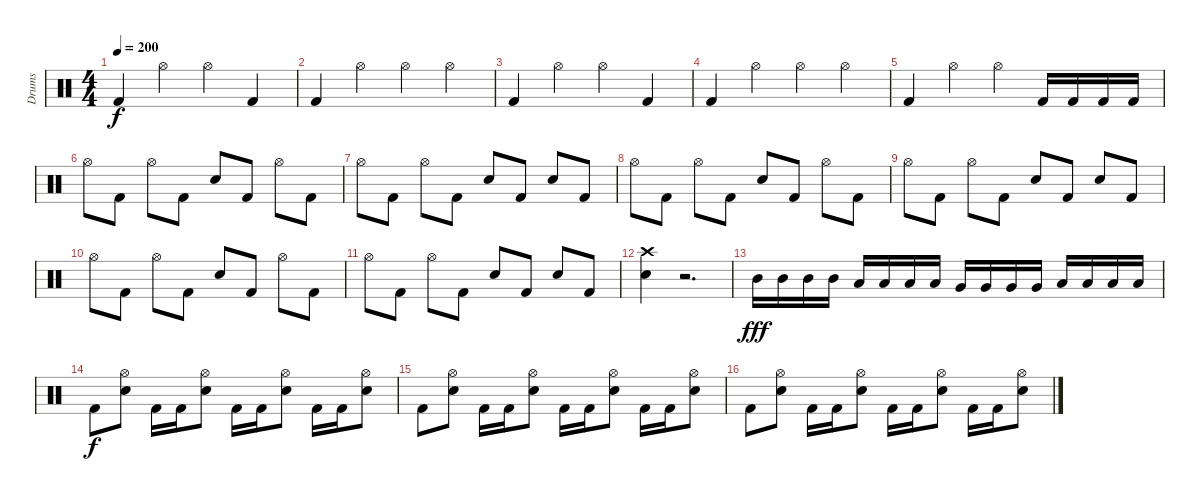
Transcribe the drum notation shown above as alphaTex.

\track ("Drums" "Drums") {instrument percussion}
\staff {score}
\articulation defaults
\ts (4 4)
\tempo 200
\clef neutral
\ks c "Kick (hit) 2".4{dy f} "Hi-Hat (open)".4 "Hi-Hat (open)".4 "Kick (hit) 2".4
|
"Kick (hit) 2".4 "Hi-Hat (open)".4 "Hi-Hat (open)".4 "Hi-Hat (open)".4 |
"Kick (hit) 2".4 "Hi-Hat (open)".4 "Hi-Hat (open)".4 "Kick (hit) 2".4 |
"Kick (hit) 2".4 "Hi-Hat (open)".4 "Hi-Hat (open)".4 "Hi-Hat (open)".4 |
"Kick (hit) 2".4 "Hi-Hat (open)".4 "Hi-Hat (open)".4 "Kick (hit) 2".16 "Kick (hit) 2".16 "Kick (hit) 2".16 "Kick (hit) 2".16 |
"Hi-Hat (open)".8 "Kick (hit) 2".8 "Hi-Hat (open)".8 "Kick (hit) 2".8 "Snare (hit) 2".8 "Kick (hit) 2".8 "Hi-Hat (open)".8 "Kick (hit) 2".8 |
"Hi-Hat (open)".8 "Kick (hit) 2".8 "Hi-Hat (open)".8 "Kick (hit) 2".8 "Snare (hit) 2".8 "Kick (hit) 2".8 "Snare (hit) 2".8 "Kick (hit) 2".8 |
"Hi-Hat (open)".8 "Kick (hit) 2".8 "Hi-Hat (open)".8 "Kick (hit) 2".8 "Snare (hit) 2".8 "Kick (hit) 2".8 "Hi-Hat (open)".8 "Kick (hit) 2".8 |
"Hi-Hat (open)".8 "Kick (hit) 2".8 "Hi-Hat (open)".8 "Kick (hit) 2".8 "Snare (hit) 2".8 "Kick (hit) 2".8 "Snare (hit) 2".8 "Kick (hit) 2".8 |
"Hi-Hat (open)".8 "Kick (hit) 2".8 "Hi-Hat (open)".8 "Kick (hit) 2".8 "Snare (hit) 2".8 "Kick (hit) 2".8 "Hi-Hat (open)".8 "Kick (hit) 2".8 |
"Hi-Hat (open)".8 "Kick (hit) 2".8 "Hi-Hat (open)".8 "Kick (hit) 2".8 "Snare (hit) 2".8 "Kick (hit) 2".8 "Snare (hit) 2".8 "Kick (hit) 2".8 |
("Crash high (hit)" "Snare (hit) 2").4 r.2{d} |
"Mid Tom (hit)".16{dy fff} "Mid Tom (hit)".16 "Mid Tom (hit)".16 "Mid Tom (hit)".16 "Low Tom (hit)".16 "Low Tom (hit)".16 "Low Tom (hit)".16 "Low Tom (hit)".16 "Very Low Tom (hit)".16 "Very Low Tom (hit)".16 "Very Low Tom (hit)".16 "Very Low Tom (hit)".16 "Low Floor Tom (hit)".16 "Low Floor Tom (hit)".16 "Low Floor Tom (hit)".16 "Low Floor Tom (hit)".16 |
"Kick (hit) 2".8{dy f} ("Hi-Hat (open)" "Snare (hit) 2").8 "Kick (hit) 2".16 "Kick (hit) 2".16 ("Hi-Hat (open)" "Snare (hit) 2").8 "Kick (hit) 2".16 "Kick (hit) 2".16 ("Hi-Hat (open)" "Snare (hit) 2").8 "Kick (hit) 2".16 "Kick (hit) 2".16 ("Hi-Hat (open)" "Snare (hit) 2").8 |
"Kick (hit) 2".8 ("Hi-Hat (open)" "Snare (hit) 2").8 "Kick (hit) 2".16 "Kick (hit) 2".16 ("Hi-Hat (open)" "Snare (hit) 2").8 "Kick (hit) 2".16 "Kick (hit) 2".16 ("Hi-Hat (open)" "Snare (hit) 2").8 "Kick (hit) 2".16 "Kick (hit) 2".16 ("Hi-Hat (open)" "Snare (hit) 2").8 |
"Kick (hit) 2".8 ("Hi-Hat (open)" "Snare (hit) 2").8 "Kick (hit) 2".16 "Kick (hit) 2".16 ("Hi-Hat (open)" "Snare (hit) 2").8 "Kick (hit) 2".16 "Kick (hit) 2".16 ("Hi-Hat (open)" "Snare (hit) 2").8 "Kick (hit) 2".16 "Kick (hit) 2".16 ("Hi-Hat (open)" "Snare (hit) 2").8
